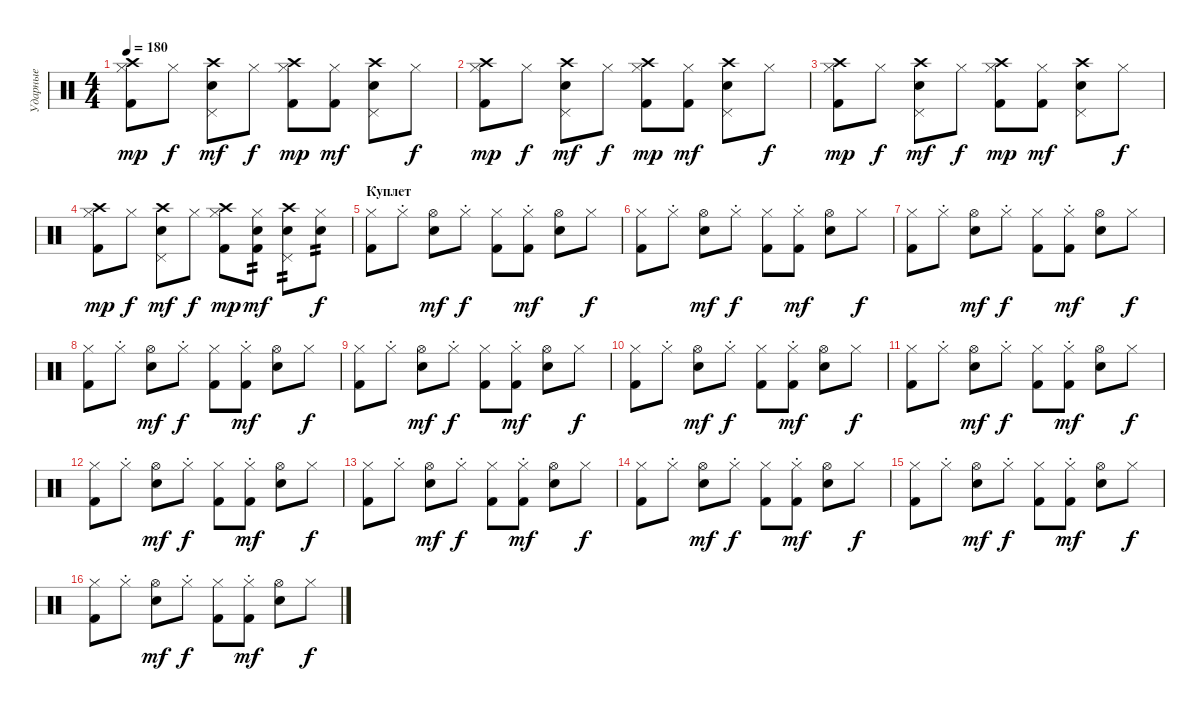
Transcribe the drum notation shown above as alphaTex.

\track ("Ударные" "Ударные") {instrument percussion}
\staff {score}
\articulation defaults
\ts (4 4)
\tempo 180
\clef neutral
\ks c
("Crash high (hit)" "Hi-Hat (closed)" "Kick (hit) 2").8{dy mp} "Hi-Hat (closed)".8{dy f} ("Crash high (hit)" "Snare (hit) 2" "Pedal Hi-Hat (hit)").8{dy mf} "Hi-Hat (closed)".8{dy f} ("Crash high (hit)" "Kick (hit) 2" "Hi-Hat (closed)").8{dy mp} ("Hi-Hat (closed)" "Kick (hit) 2").8{dy mf} ("Crash high (hit)" "Pedal Hi-Hat (hit)" "Snare (hit) 2").8 "Hi-Hat (closed)".8{dy f} |
("Crash high (hit)" "Hi-Hat (closed)" "Kick (hit) 2").8{dy mp} "Hi-Hat (closed)".8{dy f} ("Crash high (hit)" "Snare (hit) 2" "Pedal Hi-Hat (hit)").8{dy mf} "Hi-Hat (closed)".8{dy f} ("Crash high (hit)" "Kick (hit) 2" "Hi-Hat (closed)").8{dy mp} ("Hi-Hat (closed)" "Kick (hit) 2").8{dy mf} ("Crash high (hit)" "Pedal Hi-Hat (hit)" "Snare (hit) 2").8 "Hi-Hat (closed)".8{dy f} |
("Crash high (hit)" "Hi-Hat (closed)" "Kick (hit) 2").8{dy mp} "Hi-Hat (closed)".8{dy f} ("Crash high (hit)" "Snare (hit) 2" "Pedal Hi-Hat (hit)").8{dy mf} "Hi-Hat (closed)".8{dy f} ("Crash high (hit)" "Kick (hit) 2" "Hi-Hat (closed)").8{dy mp} ("Hi-Hat (closed)" "Kick (hit) 2").8{dy mf} ("Crash high (hit)" "Pedal Hi-Hat (hit)" "Snare (hit) 2").8 "Hi-Hat (closed)".8{dy f} |
("Crash high (hit)" "Hi-Hat (closed)" "Kick (hit) 2").8{dy mp} "Hi-Hat (closed)".8{dy f} ("Crash high (hit)" "Snare (hit) 2" "Pedal Hi-Hat (hit)").8{dy mf} "Hi-Hat (closed)".8{dy f} ("Crash high (hit)" "Kick (hit) 2" "Hi-Hat (closed)").8{dy mp} ("Hi-Hat (closed)" "Kick (hit) 2" "Electric Snare (hit)").8{tp 2 dy mf} ("Crash high (hit)" "Pedal Hi-Hat (hit)" "Snare (hit) 2").8{tp 2} ("Hi-Hat (closed)" "Snare (hit) 2").8{tp 2 dy f} |
\section ("" "Куплет")
("Hi-Hat (closed)" "Kick (hit) 2").8 "Hi-Hat (closed)"{st}.8 ("Hi-Hat (open)" "Snare (hit) 2").8{dy mf} "Hi-Hat (closed)"{st}.8{dy f} ("Hi-Hat (closed)" "Kick (hit) 2").8 ("Hi-Hat (closed)"{st} "Kick (hit) 2").8{dy mf} ("Hi-Hat (open)" "Snare (hit) 2").8 "Hi-Hat (closed)".8{dy f} |
("Hi-Hat (closed)" "Kick (hit) 2").8 "Hi-Hat (closed)"{st}.8 ("Hi-Hat (open)" "Snare (hit) 2").8{dy mf} "Hi-Hat (closed)"{st}.8{dy f} ("Hi-Hat (closed)" "Kick (hit) 2").8 ("Hi-Hat (closed)"{st} "Kick (hit) 2").8{dy mf} ("Hi-Hat (open)" "Snare (hit) 2").8 "Hi-Hat (closed)".8{dy f} |
("Hi-Hat (closed)" "Kick (hit) 2").8 "Hi-Hat (closed)"{st}.8 ("Hi-Hat (open)" "Snare (hit) 2").8{dy mf} "Hi-Hat (closed)"{st}.8{dy f} ("Hi-Hat (closed)" "Kick (hit) 2").8 ("Hi-Hat (closed)"{st} "Kick (hit) 2").8{dy mf} ("Hi-Hat (open)" "Snare (hit) 2").8 "Hi-Hat (closed)".8{dy f} |
("Hi-Hat (closed)" "Kick (hit) 2").8 "Hi-Hat (closed)"{st}.8 ("Hi-Hat (open)" "Snare (hit) 2").8{dy mf} "Hi-Hat (closed)"{st}.8{dy f} ("Hi-Hat (closed)" "Kick (hit) 2").8 ("Hi-Hat (closed)"{st} "Kick (hit) 2").8{dy mf} ("Hi-Hat (open)" "Snare (hit) 2").8 "Hi-Hat (closed)".8{dy f} |
("Hi-Hat (closed)" "Kick (hit) 2").8 "Hi-Hat (closed)"{st}.8 ("Hi-Hat (open)" "Snare (hit) 2").8{dy mf} "Hi-Hat (closed)"{st}.8{dy f} ("Hi-Hat (closed)" "Kick (hit) 2").8 ("Hi-Hat (closed)"{st} "Kick (hit) 2").8{dy mf} ("Hi-Hat (open)" "Snare (hit) 2").8 "Hi-Hat (closed)".8{dy f} |
("Hi-Hat (closed)" "Kick (hit) 2").8 "Hi-Hat (closed)"{st}.8 ("Hi-Hat (open)" "Snare (hit) 2").8{dy mf} "Hi-Hat (closed)"{st}.8{dy f} ("Hi-Hat (closed)" "Kick (hit) 2").8 ("Hi-Hat (closed)"{st} "Kick (hit) 2").8{dy mf} ("Hi-Hat (open)" "Snare (hit) 2").8 "Hi-Hat (closed)".8{dy f} |
("Hi-Hat (closed)" "Kick (hit) 2").8 "Hi-Hat (closed)"{st}.8 ("Hi-Hat (open)" "Snare (hit) 2").8{dy mf} "Hi-Hat (closed)"{st}.8{dy f} ("Hi-Hat (closed)" "Kick (hit) 2").8 ("Hi-Hat (closed)"{st} "Kick (hit) 2").8{dy mf} ("Hi-Hat (open)" "Snare (hit) 2").8 "Hi-Hat (closed)".8{dy f} |
("Hi-Hat (closed)" "Kick (hit) 2").8 "Hi-Hat (closed)"{st}.8 ("Hi-Hat (open)" "Snare (hit) 2").8{dy mf} "Hi-Hat (closed)"{st}.8{dy f} ("Hi-Hat (closed)" "Kick (hit) 2").8 ("Hi-Hat (closed)"{st} "Kick (hit) 2").8{dy mf} ("Hi-Hat (open)" "Snare (hit) 2").8 "Hi-Hat (closed)".8{dy f} |
("Hi-Hat (closed)" "Kick (hit) 2").8 "Hi-Hat (closed)"{st}.8 ("Hi-Hat (open)" "Snare (hit) 2").8{dy mf} "Hi-Hat (closed)"{st}.8{dy f} ("Hi-Hat (closed)" "Kick (hit) 2").8 ("Hi-Hat (closed)"{st} "Kick (hit) 2").8{dy mf} ("Hi-Hat (open)" "Snare (hit) 2").8 "Hi-Hat (closed)".8{dy f} |
("Hi-Hat (closed)" "Kick (hit) 2").8 "Hi-Hat (closed)"{st}.8 ("Hi-Hat (open)" "Snare (hit) 2").8{dy mf} "Hi-Hat (closed)"{st}.8{dy f} ("Hi-Hat (closed)" "Kick (hit) 2").8 ("Hi-Hat (closed)"{st} "Kick (hit) 2").8{dy mf} ("Hi-Hat (open)" "Snare (hit) 2").8 "Hi-Hat (closed)".8{dy f} |
("Hi-Hat (closed)" "Kick (hit) 2").8 "Hi-Hat (closed)"{st}.8 ("Hi-Hat (open)" "Snare (hit) 2").8{dy mf} "Hi-Hat (closed)"{st}.8{dy f} ("Hi-Hat (closed)" "Kick (hit) 2").8 ("Hi-Hat (closed)"{st} "Kick (hit) 2").8{dy mf} ("Hi-Hat (open)" "Snare (hit) 2").8 "Hi-Hat (closed)".8{dy f} |
("Hi-Hat (closed)" "Kick (hit) 2").8 "Hi-Hat (closed)"{st}.8 ("Hi-Hat (open)" "Snare (hit) 2").8{dy mf} "Hi-Hat (closed)"{st}.8{dy f} ("Hi-Hat (closed)" "Kick (hit) 2").8 ("Hi-Hat (closed)"{st} "Kick (hit) 2").8{dy mf} ("Hi-Hat (open)" "Snare (hit) 2").8 "Hi-Hat (closed)".8{dy f}
